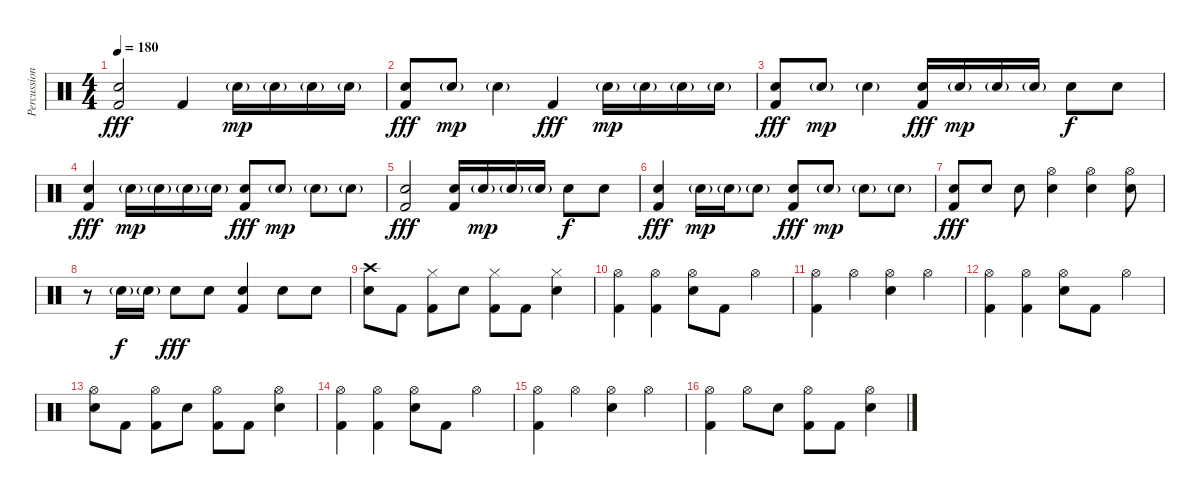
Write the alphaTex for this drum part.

\track ("Percussion" "Percussion") {instrument percussion}
\staff {score}
\articulation defaults
\ts (4 4)
\tempo 180
\clef neutral
\ks c
("Kick (hit) 2" "Electric Snare (hit)").2{dy fff} "Kick (hit) 2".4 "Electric Snare (hit)"{g}.16{dy mp} "Electric Snare (hit)"{g}.16 "Electric Snare (hit)"{g}.16 "Electric Snare (hit)"{g}.16 |
("Kick (hit) 2" "Electric Snare (hit)").8{dy fff} "Electric Snare (hit)"{g}.8{dy mp} "Electric Snare (hit)"{g}.4 "Kick (hit) 2".4{dy fff} "Electric Snare (hit)"{g}.16{dy mp} "Electric Snare (hit)"{g}.16 "Electric Snare (hit)"{g}.16 "Electric Snare (hit)"{g}.16 |
("Kick (hit) 2" "Electric Snare (hit)").8{dy fff} "Electric Snare (hit)"{g}.8{dy mp} "Electric Snare (hit)"{g}.4 ("Kick (hit) 2" "Electric Snare (hit)").16{dy fff} "Electric Snare (hit)"{g}.16{dy mp} "Electric Snare (hit)"{g}.16 "Electric Snare (hit)"{g}.16 "Electric Snare (hit)".8{dy f} "Electric Snare (hit)".8 |
("Kick (hit) 2" "Electric Snare (hit)").4{dy fff} "Electric Snare (hit)"{g}.16{dy mp} "Electric Snare (hit)"{g}.16 "Electric Snare (hit)"{g}.16 "Electric Snare (hit)"{g}.16 ("Kick (hit) 2" "Electric Snare (hit)").8{dy fff} "Electric Snare (hit)"{g}.8{dy mp} "Electric Snare (hit)"{g}.8 "Electric Snare (hit)"{g}.8 |
("Kick (hit) 2" "Electric Snare (hit)").2{dy fff} ("Kick (hit) 2" "Electric Snare (hit)").16 "Electric Snare (hit)"{g}.16{dy mp} "Electric Snare (hit)"{g}.16 "Electric Snare (hit)"{g}.16 "Electric Snare (hit)".8{dy f} "Electric Snare (hit)".8 |
("Kick (hit) 2" "Electric Snare (hit)").4{dy fff} "Electric Snare (hit)"{g}.16{dy mp} "Electric Snare (hit)"{g}.16 "Electric Snare (hit)"{g}.8 ("Kick (hit) 2" "Electric Snare (hit)").8{dy fff} "Electric Snare (hit)"{g}.8{dy mp} "Electric Snare (hit)"{g}.8 "Electric Snare (hit)"{g}.8 |
("Kick (hit) 2" "Electric Snare (hit)").8{dy fff} "Electric Snare (hit)".8 "Electric Snare (hit)".8 ("Hi-Hat (open)" "Electric Snare (hit)").4 ("Hi-Hat (open)" "Electric Snare (hit)").4 ("Hi-Hat (open)" "Electric Snare (hit)").8 |
r.8 "Electric Snare (hit)"{g}.16{dy f} "Electric Snare (hit)"{g}.16 "Electric Snare (hit)".8{dy fff} "Electric Snare (hit)".8 ("Kick (hit) 2" "Electric Snare (hit)").4 "Electric Snare (hit)".8 "Electric Snare (hit)".8 |
("Crash high (hit)" "Electric Snare (hit)").8 "Kick (hit) 2".8 ("Hi-Hat (closed)" "Kick (hit) 2").8 "Electric Snare (hit)".8 ("Hi-Hat (closed)" "Kick (hit) 2").8 "Kick (hit) 2".8 ("Hi-Hat (closed)" "Electric Snare (hit)").4 |
("Hi-Hat (open)" "Kick (hit) 2").4 ("Hi-Hat (open)" "Kick (hit) 2").4 ("Hi-Hat (open)" "Electric Snare (hit)").8 "Kick (hit) 2".8 "Hi-Hat (open)".4 |
("Hi-Hat (open)" "Kick (hit) 2").4 "Hi-Hat (open)".4 ("Hi-Hat (open)" "Electric Snare (hit)").4 "Hi-Hat (open)".4 |
("Hi-Hat (open)" "Kick (hit) 2").4 ("Hi-Hat (open)" "Kick (hit) 2").4 ("Hi-Hat (open)" "Electric Snare (hit)").8 "Kick (hit) 2".8 "Hi-Hat (open)".4 |
("Hi-Hat (open)" "Electric Snare (hit)").8 "Kick (hit) 2".8 ("Hi-Hat (open)" "Kick (hit) 2").8 "Electric Snare (hit)".8 ("Hi-Hat (open)" "Kick (hit) 2").8 "Kick (hit) 2".8 ("Hi-Hat (open)" "Electric Snare (hit)").4 |
("Hi-Hat (open)" "Kick (hit) 2").4 ("Hi-Hat (open)" "Kick (hit) 2").4 ("Hi-Hat (open)" "Electric Snare (hit)").8 "Kick (hit) 2".8 "Hi-Hat (open)".4 |
("Hi-Hat (open)" "Kick (hit) 2").4 "Hi-Hat (open)".4 ("Hi-Hat (open)" "Electric Snare (hit)").4 "Hi-Hat (open)".4 |
("Hi-Hat (open)" "Kick (hit) 2").4 "Hi-Hat (open)".8 "Electric Snare (hit)".8 ("Hi-Hat (open)" "Kick (hit) 2").8 "Kick (hit) 2".8 ("Hi-Hat (open)" "Electric Snare (hit)").4
